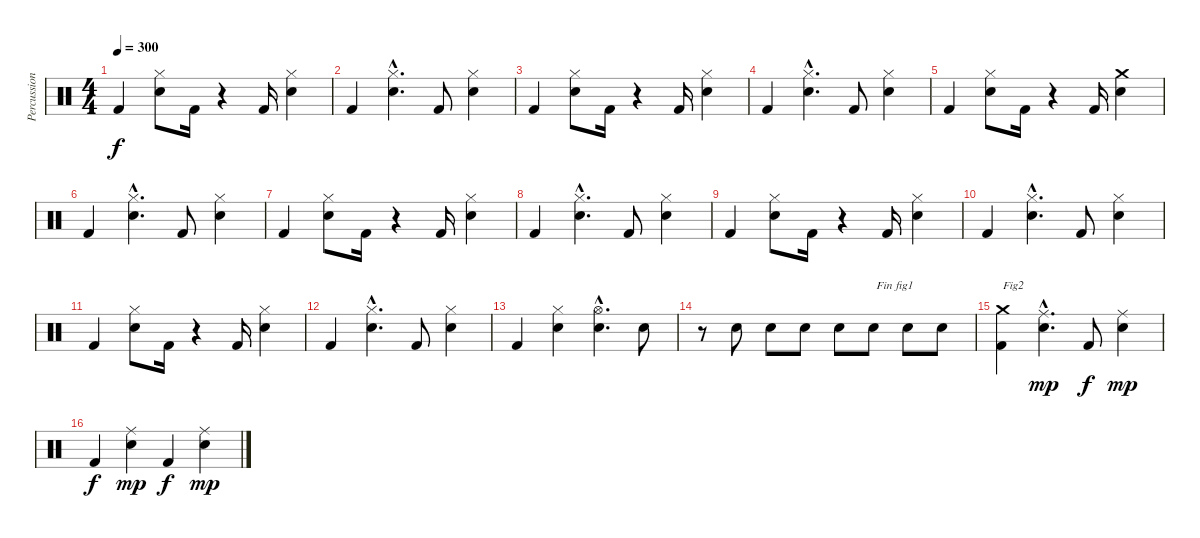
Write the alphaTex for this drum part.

\track ("Percussions" "Percussion") {instrument percussion}
\staff {score}
\articulation defaults
\ts (4 4)
\tempo 300
\clef neutral
\ks c "Kick (hit) 2".4{dy f}
("Electric Snare (hit)" "Hi-Hat (closed)").8 "Kick (hit) 2".16 r.4 "Kick (hit) 2".16 ("Electric Snare (hit)" "Hi-Hat (closed)").4 |
"Kick (hit) 2".4 ("Electric Snare (hit)"{hac} "Hi-Hat (closed)"{hac}).4{d} "Kick (hit) 2".8 ("Electric Snare (hit)" "Hi-Hat (closed)").4 |
"Kick (hit) 2".4 ("Electric Snare (hit)" "Hi-Hat (closed)").8 "Kick (hit) 2".16 r.4 "Kick (hit) 2".16 ("Electric Snare (hit)" "Hi-Hat (closed)").4 |
"Kick (hit) 2".4 ("Electric Snare (hit)"{hac} "Hi-Hat (closed)"{hac}).4{d} "Kick (hit) 2".8 ("Electric Snare (hit)" "Hi-Hat (closed)").4 |
"Kick (hit) 2".4 ("Electric Snare (hit)" "Hi-Hat (closed)").8 "Kick (hit) 2".16 r.4 "Kick (hit) 2".16 ("Electric Snare (hit)" "Crash medium (hit)").4 |
"Kick (hit) 2".4 ("Electric Snare (hit)"{hac} "Hi-Hat (closed)"{hac}).4{d} "Kick (hit) 2".8 ("Electric Snare (hit)" "Hi-Hat (closed)").4 |
"Kick (hit) 2".4 ("Electric Snare (hit)" "Hi-Hat (closed)").8 "Kick (hit) 2".16 r.4 "Kick (hit) 2".16 ("Electric Snare (hit)" "Hi-Hat (closed)").4 |
"Kick (hit) 2".4 ("Electric Snare (hit)"{hac} "Hi-Hat (closed)"{hac}).4{d} "Kick (hit) 2".8 ("Electric Snare (hit)" "Hi-Hat (closed)").4 |
"Kick (hit) 2".4 ("Electric Snare (hit)" "Hi-Hat (closed)").8 "Kick (hit) 2".16 r.4 "Kick (hit) 2".16 ("Electric Snare (hit)" "Hi-Hat (closed)").4 |
"Kick (hit) 2".4 ("Electric Snare (hit)"{hac} "Hi-Hat (closed)"{hac}).4{d} "Kick (hit) 2".8 ("Electric Snare (hit)" "Hi-Hat (closed)").4 |
"Kick (hit) 2".4 ("Electric Snare (hit)" "Hi-Hat (closed)").8 "Kick (hit) 2".16 r.4 "Kick (hit) 2".16 ("Electric Snare (hit)" "Hi-Hat (closed)").4 |
"Kick (hit) 2".4 ("Electric Snare (hit)"{hac} "Hi-Hat (closed)"{hac}).4{d} "Kick (hit) 2".8 ("Electric Snare (hit)" "Hi-Hat (closed)").4 |
"Kick (hit) 2".4 ("Electric Snare (hit)" "Hi-Hat (closed)").4 ("Electric Snare (hit)"{hac} "Hi-Hat (open)"{hac}).4{d} "Electric Snare (hit)".8 |
r.8 "Electric Snare (hit)".8 "Electric Snare (hit)".8 "Electric Snare (hit)".8 "Electric Snare (hit)".8 "Electric Snare (hit)".8{txt " Fin fig1"} "Electric Snare (hit)".8 "Electric Snare (hit)".8 |
("Kick (hit) 2" "Crash medium (hit)").4{txt "Fig2"} ("Electric Snare (hit)"{hac} "Ride (middle)"{hac}).4{d dy mp} "Kick (hit) 2".8{dy f} ("Electric Snare (hit)" "Ride (middle)").4{dy mp} |
"Kick (hit) 2".4{dy f} ("Electric Snare (hit)" "Ride (middle)").4{dy mp} "Kick (hit) 2".4{dy f} ("Electric Snare (hit)" "Ride (middle)").4{dy mp}
